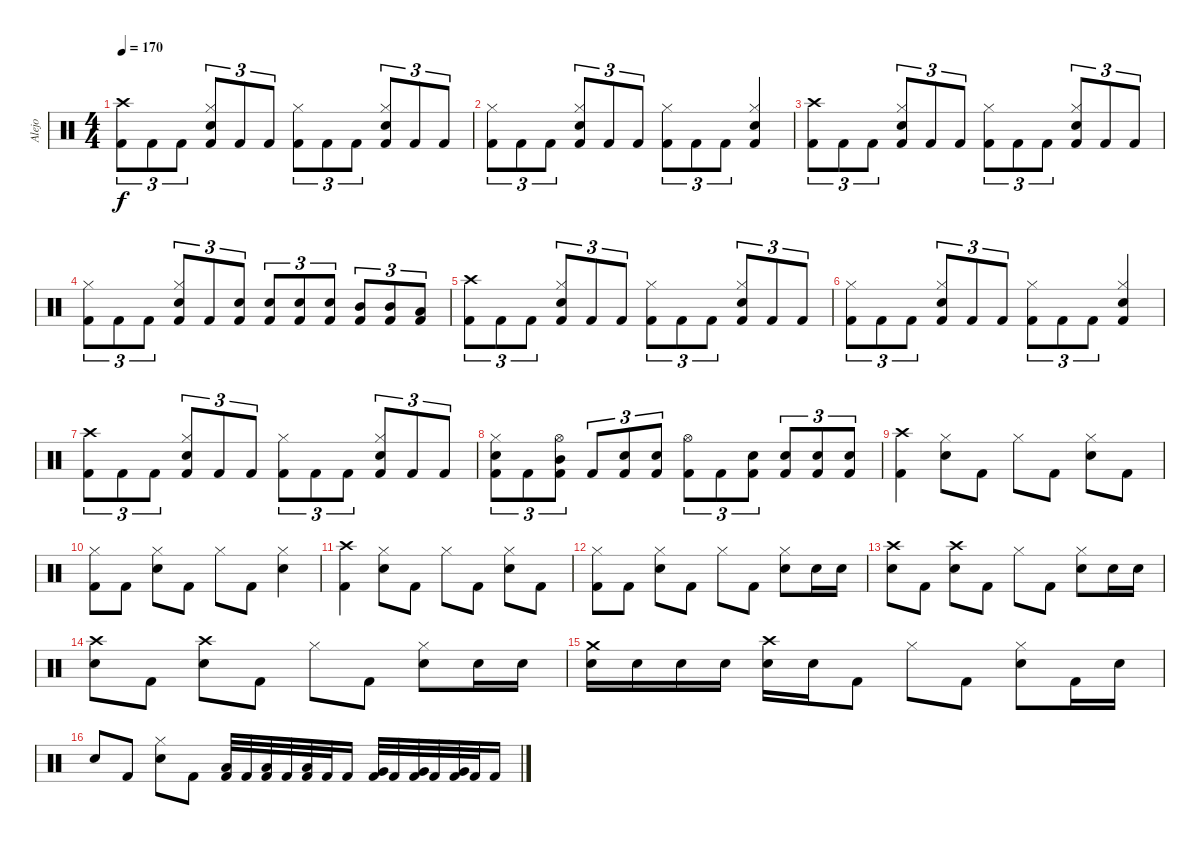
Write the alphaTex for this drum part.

\track ("Alejo" "Alejo") {instrument percussion}
\staff {score}
\articulation defaults
\ts (4 4)
\tempo 170
\clef neutral
\ks c
("Kick (hit) 2" "Crash high (hit)").8{tu (3 2) dy f} "Kick (hit) 2".8{tu (3 2)} "Kick (hit) 2".8{tu (3 2)} ("Kick (hit) 2" "Hi-Hat (closed)" "Snare (hit) 2").8{tu (3 2)} "Kick (hit) 2".8{tu (3 2)} "Kick (hit) 2".8{tu (3 2)} ("Kick (hit) 2" "Hi-Hat (closed)").8{tu (3 2)} "Kick (hit) 2".8{tu (3 2)} "Kick (hit) 2".8{tu (3 2)} ("Kick (hit) 2" "Hi-Hat (closed)" "Snare (hit) 2").8{tu (3 2)} "Kick (hit) 2".8{tu (3 2)} "Kick (hit) 2".8{tu (3 2)} |
("Kick (hit) 2" "Hi-Hat (closed)").8{tu (3 2)} "Kick (hit) 2".8{tu (3 2)} "Kick (hit) 2".8{tu (3 2)} ("Kick (hit) 2" "Hi-Hat (closed)" "Snare (hit) 2").8{tu (3 2)} "Kick (hit) 2".8{tu (3 2)} "Kick (hit) 2".8{tu (3 2)} ("Kick (hit) 2" "Hi-Hat (closed)").8{tu (3 2)} "Kick (hit) 2".8{tu (3 2)} "Kick (hit) 2".8{tu (3 2)} ("Kick (hit) 2" "Hi-Hat (closed)" "Snare (hit) 2").4 |
("Kick (hit) 2" "Crash high (hit)").8{tu (3 2)} "Kick (hit) 2".8{tu (3 2)} "Kick (hit) 2".8{tu (3 2)} ("Kick (hit) 2" "Hi-Hat (closed)" "Snare (hit) 2").8{tu (3 2)} "Kick (hit) 2".8{tu (3 2)} "Kick (hit) 2".8{tu (3 2)} ("Kick (hit) 2" "Hi-Hat (closed)").8{tu (3 2)} "Kick (hit) 2".8{tu (3 2)} "Kick (hit) 2".8{tu (3 2)} ("Kick (hit) 2" "Hi-Hat (closed)" "Snare (hit) 2").8{tu (3 2)} "Kick (hit) 2".8{tu (3 2)} "Kick (hit) 2".8{tu (3 2)} |
("Kick (hit) 2" "Hi-Hat (closed)").8{tu (3 2)} "Kick (hit) 2".8{tu (3 2)} "Kick (hit) 2".8{tu (3 2)} ("Kick (hit) 2" "Hi-Hat (closed)" "Snare (hit) 2").8{tu (3 2)} "Kick (hit) 2".8{tu (3 2)} ("Kick (hit) 2" "Snare (hit) 2").8{tu (3 2)} ("Kick (hit) 2" "Snare (hit) 2").8{tu (3 2)} ("Kick (hit) 2" "Snare (hit) 2").8{tu (3 2)} ("Snare (hit) 2" "Kick (hit) 2").8{tu (3 2)} ("Kick (hit) 2" "Mid Tom (hit)").8{tu (3 2)} ("Kick (hit) 2" "Mid Tom (hit)").8{tu (3 2)} ("Kick (hit) 2" "Low Tom (hit)").8{tu (3 2)} |
("Kick (hit) 2" "Crash high (hit)").8{tu (3 2)} "Kick (hit) 2".8{tu (3 2)} "Kick (hit) 2".8{tu (3 2)} ("Kick (hit) 2" "Hi-Hat (closed)" "Snare (hit) 2").8{tu (3 2)} "Kick (hit) 2".8{tu (3 2)} "Kick (hit) 2".8{tu (3 2)} ("Kick (hit) 2" "Hi-Hat (closed)").8{tu (3 2)} "Kick (hit) 2".8{tu (3 2)} "Kick (hit) 2".8{tu (3 2)} ("Kick (hit) 2" "Hi-Hat (closed)" "Snare (hit) 2").8{tu (3 2)} "Kick (hit) 2".8{tu (3 2)} "Kick (hit) 2".8{tu (3 2)} |
("Kick (hit) 2" "Hi-Hat (closed)").8{tu (3 2)} "Kick (hit) 2".8{tu (3 2)} "Kick (hit) 2".8{tu (3 2)} ("Kick (hit) 2" "Hi-Hat (closed)" "Snare (hit) 2").8{tu (3 2)} "Kick (hit) 2".8{tu (3 2)} "Kick (hit) 2".8{tu (3 2)} ("Kick (hit) 2" "Hi-Hat (closed)").8{tu (3 2)} "Kick (hit) 2".8{tu (3 2)} "Kick (hit) 2".8{tu (3 2)} ("Kick (hit) 2" "Hi-Hat (closed)" "Snare (hit) 2").4 |
("Kick (hit) 2" "Crash high (hit)").8{tu (3 2)} "Kick (hit) 2".8{tu (3 2)} "Kick (hit) 2".8{tu (3 2)} ("Kick (hit) 2" "Hi-Hat (closed)" "Snare (hit) 2").8{tu (3 2)} "Kick (hit) 2".8{tu (3 2)} "Kick (hit) 2".8{tu (3 2)} ("Kick (hit) 2" "Hi-Hat (closed)").8{tu (3 2)} "Kick (hit) 2".8{tu (3 2)} "Kick (hit) 2".8{tu (3 2)} ("Kick (hit) 2" "Hi-Hat (closed)" "Snare (hit) 2").8{tu (3 2)} "Kick (hit) 2".8{tu (3 2)} "Kick (hit) 2".8{tu (3 2)} |
("Kick (hit) 2" "Hi-Hat (closed)" "Snare (hit) 2").8{tu (3 2)} "Kick (hit) 2".8{tu (3 2)} ("Mid Tom (hit)" "Kick (hit) 2" "Hi-Hat (open)").8{tu (3 2)} "Kick (hit) 2".8{tu (3 2)} ("Kick (hit) 2" "Snare (hit) 2").8{tu (3 2)} ("Kick (hit) 2" "Snare (hit) 2").8{tu (3 2)} ("Kick (hit) 2" "Hi-Hat (open)").8{tu (3 2)} "Kick (hit) 2".8{tu (3 2)} ("Snare (hit) 2" "Kick (hit) 2").8{tu (3 2)} ("Kick (hit) 2" "Snare (hit) 2").8{tu (3 2)} ("Kick (hit) 2" "Snare (hit) 2").8{tu (3 2)} ("Kick (hit) 2" "Snare (hit) 2").8{tu (3 2)} |
("Kick (hit) 2" "Crash high (hit)").4 ("Snare (hit) 2" "Hi-Hat (closed)").8 "Kick (hit) 2".8 "Hi-Hat (closed)".8 "Kick (hit) 2".8 ("Snare (hit) 2" "Hi-Hat (closed)").8 "Kick (hit) 2".8 |
("Kick (hit) 2" "Hi-Hat (closed)").8 "Kick (hit) 2".8 ("Snare (hit) 2" "Hi-Hat (closed)").8 "Kick (hit) 2".8 "Hi-Hat (closed)".8 "Kick (hit) 2".8 ("Snare (hit) 2" "Hi-Hat (closed)").4 |
("Kick (hit) 2" "Crash high (hit)").4 ("Snare (hit) 2" "Hi-Hat (closed)").8 "Kick (hit) 2".8 "Hi-Hat (closed)".8 "Kick (hit) 2".8 ("Snare (hit) 2" "Hi-Hat (closed)").8 "Kick (hit) 2".8 |
("Kick (hit) 2" "Hi-Hat (closed)").8 "Kick (hit) 2".8 ("Snare (hit) 2" "Hi-Hat (closed)").8 "Kick (hit) 2".8 "Hi-Hat (closed)".8 "Kick (hit) 2".8 ("Snare (hit) 2" "Hi-Hat (closed)").8 "Snare (hit) 2".16 "Snare (hit) 2".16 |
("Crash high (hit)" "Snare (hit) 2").8 "Kick (hit) 2".8 ("Snare (hit) 2" "Crash high (hit)").8 "Kick (hit) 2".8 "Hi-Hat (closed)".8 "Kick (hit) 2".8 ("Snare (hit) 2" "Hi-Hat (closed)").8 "Snare (hit) 2".16 "Snare (hit) 2".16 |
("Crash high (hit)" "Snare (hit) 2").8 "Kick (hit) 2".8 ("Snare (hit) 2" "Crash high (hit)").8 "Kick (hit) 2".8 "Hi-Hat (closed)".8 "Kick (hit) 2".8 ("Snare (hit) 2" "Hi-Hat (closed)").8 "Snare (hit) 2".16 "Snare (hit) 2".16 |
("Snare (hit) 2" "Crash medium (hit)").16 "Snare (hit) 2".16 "Snare (hit) 2".16 "Snare (hit) 2".16 ("Snare (hit) 2" "Crash high (hit)").16 "Snare (hit) 2".16 "Kick (hit) 2".8 "Hi-Hat (closed)".8 "Kick (hit) 2".8 ("Snare (hit) 2" "Hi-Hat (closed)").8 "Kick (hit) 2".16 "Snare (hit) 2".16 |
"Snare (hit) 2".8 "Kick (hit) 2".8 ("Snare (hit) 2" "Hi-Hat (closed)").8 "Kick (hit) 2".8 ("Kick (hit) 2" "Low Tom (hit)").32 "Kick (hit) 2".32 ("Kick (hit) 2" "Low Tom (hit)").32 "Kick (hit) 2".32 ("Kick (hit) 2" "Low Tom (hit)").32 "Kick (hit) 2".32 "Kick (hit) 2".16 ("Kick (hit) 2" "Very Low Tom (hit)").32 "Kick (hit) 2".32 ("Kick (hit) 2" "Very Low Tom (hit)").32 "Kick (hit) 2".32 ("Kick (hit) 2" "Very Low Tom (hit)").32 "Kick (hit) 2".32 "Kick (hit) 2".16
